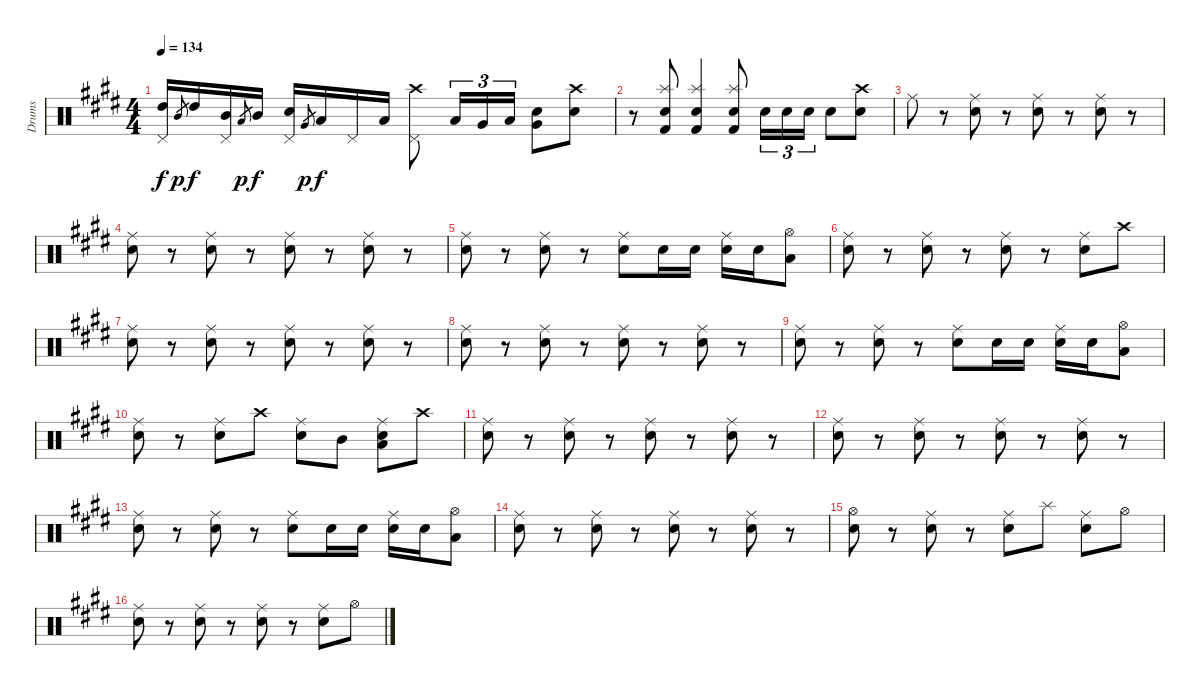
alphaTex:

\track ("Drums" "Drums") {instrument percussion}
\staff {score}
\articulation defaults
\ts (4 4)
\tempo 134
\clef neutral
\ks e
("High Tom (hit)" "Pedal Hi-Hat (hit)").16{dy f} "Mid Tom (hit)".8{gr dy p} "High Tom (hit)".16{dy f} ("Mid Tom (hit)" "Pedal Hi-Hat (hit)").16 "Low Tom (hit)".8{gr dy p} "Mid Tom (hit)".16{dy f} ("Electric Snare (hit)" "Pedal Hi-Hat (hit)").16 "Very Low Tom (hit)".8{gr dy p} "Low Tom (hit)".16{dy f} "Pedal Hi-Hat (hit)".16 "Low Tom (hit)".16 ("Pedal Hi-Hat (hit)" "Crash high (hit)").8 "Low Tom (hit)".16{tu (3 2)} "Very Low Tom (hit)".16{tu (3 2)} "Low Floor Tom (hit)".16{tu (3 2)} ("Very Low Tom (hit)" "Electric Snare (hit)").8 ("Crash high (hit)" "Electric Snare (hit)").8 |
r.8 ("Electric Snare (hit)" "Splash (hit)" "Kick (hit) 2").8 ("Electric Snare (hit)" "Splash (hit)" "Kick (hit) 2").4 ("Electric Snare (hit)" "Splash (hit)" "Kick (hit) 2").8 "Electric Snare (hit)".16{tu (3 2)} "Electric Snare (hit)".16{tu (3 2)} "Electric Snare (hit)".16{tu (3 2)} "Electric Snare (hit)".8 ("Crash high (hit)" "Electric Snare (hit)").8 |
"Ride (middle)".8 r.8 ("Ride (middle)" "Electric Snare (hit)").8 r.8 ("Ride (middle)" "Electric Snare (hit)").8 r.8 ("Ride (middle)" "Electric Snare (hit)").8 r.8 |
("Ride (middle)" "Electric Snare (hit)").8 r.8 ("Ride (middle)" "Electric Snare (hit)").8 r.8 ("Ride (middle)" "Electric Snare (hit)").8 r.8 ("Ride (middle)" "Electric Snare (hit)").8 r.8 |
("Ride (middle)" "Electric Snare (hit)").8 r.8 ("Ride (middle)" "Electric Snare (hit)").8 r.8 ("Ride (middle)" "Electric Snare (hit)").8 "Electric Snare (hit)".16{volume 8} "Electric Snare (hit)".16 ("Ride (middle)" "Electric Snare (hit)").16 "Electric Snare (hit)".16 ("Hi-Hat (open)" "Low Tom (hit)").8{volume 10} |
("Ride (middle)" "Electric Snare (hit)").8 r.8 ("Ride (middle)" "Electric Snare (hit)").8 r.8 ("Ride (middle)" "Electric Snare (hit)").8 r.8 ("Ride (middle)" "Electric Snare (hit)").8 "Crash high (hit)".8 |
("Ride (middle)" "Electric Snare (hit)").8 r.8 ("Ride (middle)" "Electric Snare (hit)").8 r.8 ("Ride (middle)" "Electric Snare (hit)").8 r.8 ("Ride (middle)" "Electric Snare (hit)").8 r.8 |
("Ride (middle)" "Electric Snare (hit)").8 r.8 ("Ride (middle)" "Electric Snare (hit)").8 r.8 ("Ride (middle)" "Electric Snare (hit)").8 r.8 ("Ride (middle)" "Electric Snare (hit)").8 r.8 |
("Ride (middle)" "Electric Snare (hit)").8 r.8 ("Ride (middle)" "Electric Snare (hit)").8 r.8 ("Ride (middle)" "Electric Snare (hit)").8 "Electric Snare (hit)".16{volume 8} "Electric Snare (hit)".16 ("Ride (middle)" "Electric Snare (hit)").16 "Electric Snare (hit)".16 ("Hi-Hat (open)" "Low Tom (hit)").8{volume 10} |
("Ride (middle)" "Electric Snare (hit)").8 r.8 ("Ride (middle)" "Electric Snare (hit)").8 "Crash high (hit)".8 ("Ride (middle)" "Electric Snare (hit)").8 "Mid Tom (hit)".8 ("Ride (middle)" "Low Tom (hit)" "Electric Snare (hit)").8 "Crash high (hit)".8 |
("Ride (middle)" "Electric Snare (hit)").8 r.8 ("Ride (middle)" "Electric Snare (hit)").8 r.8 ("Ride (middle)" "Electric Snare (hit)").8 r.8 ("Ride (middle)" "Electric Snare (hit)").8 r.8 |
("Ride (middle)" "Electric Snare (hit)").8 r.8 ("Ride (middle)" "Electric Snare (hit)").8 r.8 ("Ride (middle)" "Electric Snare (hit)").8 r.8 ("Ride (middle)" "Electric Snare (hit)").8 r.8 |
("Ride (middle)" "Electric Snare (hit)").8 r.8 ("Ride (middle)" "Electric Snare (hit)").8 r.8 ("Ride (middle)" "Electric Snare (hit)").8 "Electric Snare (hit)".16{volume 8} "Electric Snare (hit)".16 ("Ride (middle)" "Electric Snare (hit)").16 "Electric Snare (hit)".16 ("Hi-Hat (open)" "Low Tom (hit)").8{volume 10} |
("Ride (middle)" "Electric Snare (hit)").8 r.8 ("Ride (middle)" "Electric Snare (hit)").8 r.8 ("Ride (middle)" "Electric Snare (hit)").8 r.8 ("Ride (middle)" "Electric Snare (hit)").8 r.8 |
("Hi-Hat (open)" "Electric Snare (hit)").8 r.8 ("Ride (middle)" "Electric Snare (hit)").8 r.8 ("Ride (middle)" "Electric Snare (hit)").8 "Splash (hit)".8 ("Ride (middle)" "Electric Snare (hit)").8 "Hi-Hat (open)".8 |
("Ride (middle)" "Electric Snare (hit)").8 r.8 ("Ride (middle)" "Electric Snare (hit)").8 r.8 ("Ride (middle)" "Electric Snare (hit)").8 r.8 ("Ride (middle)" "Electric Snare (hit)").8 "Hi-Hat (open)".8
